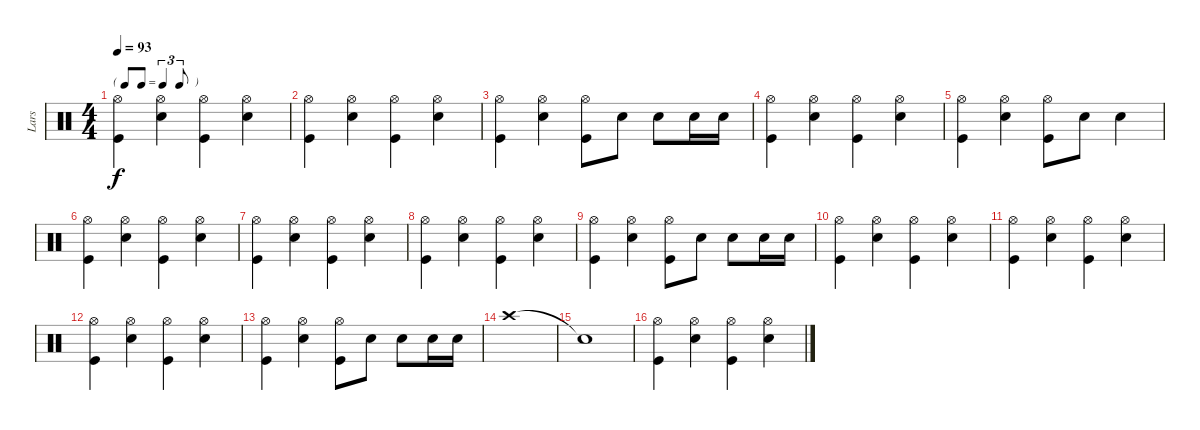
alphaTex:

\track ("Lars" "Lars") {instrument percussion}
\staff {score}
\articulation defaults
\ts (4 4)
\tf triplet8th
\tempo 93
\clef neutral
\ks c
("Hi-Hat (open)" "Kick (hit)").4{dy f} ("Hi-Hat (open)" "Snare (hit) 2").4 ("Hi-Hat (open)" "Kick (hit)").4 ("Hi-Hat (open)" "Snare (hit) 2").4 |
("Hi-Hat (open)" "Kick (hit)").4 ("Hi-Hat (open)" "Snare (hit) 2").4 ("Hi-Hat (open)" "Kick (hit)").4 ("Hi-Hat (open)" "Snare (hit) 2").4 |
("Hi-Hat (open)" "Kick (hit)").4 ("Hi-Hat (open)" "Snare (hit) 2").4 ("Hi-Hat (open)" "Kick (hit)").8 "Snare (hit) 2".8 "Snare (hit) 2".8 "Snare (hit) 2".16 "Snare (hit) 2".16 |
("Hi-Hat (open)" "Kick (hit)").4 ("Hi-Hat (open)" "Snare (hit) 2").4 ("Hi-Hat (open)" "Kick (hit)").4 ("Hi-Hat (open)" "Snare (hit) 2").4 |
("Hi-Hat (open)" "Kick (hit)").4 ("Hi-Hat (open)" "Snare (hit) 2").4 ("Hi-Hat (open)" "Kick (hit)").8 "Snare (hit) 2".8 "Snare (hit) 2".4 |
("Hi-Hat (open)" "Kick (hit)").4 ("Hi-Hat (open)" "Snare (hit) 2").4 ("Hi-Hat (open)" "Kick (hit)").4 ("Hi-Hat (open)" "Snare (hit) 2").4 |
("Hi-Hat (open)" "Kick (hit)").4 ("Hi-Hat (open)" "Snare (hit) 2").4 ("Hi-Hat (open)" "Kick (hit)").4 ("Hi-Hat (open)" "Snare (hit) 2").4 |
("Hi-Hat (open)" "Kick (hit)").4 ("Hi-Hat (open)" "Snare (hit) 2").4 ("Hi-Hat (open)" "Kick (hit)").4 ("Hi-Hat (open)" "Snare (hit) 2").4 |
("Hi-Hat (open)" "Kick (hit)").4 ("Hi-Hat (open)" "Snare (hit) 2").4 ("Hi-Hat (open)" "Kick (hit)").8 "Snare (hit) 2".8 "Snare (hit) 2".8 "Snare (hit) 2".16 "Snare (hit) 2".16 |
("Hi-Hat (open)" "Kick (hit)").4 ("Hi-Hat (open)" "Snare (hit) 2").4 ("Hi-Hat (open)" "Kick (hit)").4 ("Hi-Hat (open)" "Snare (hit) 2").4 |
("Hi-Hat (open)" "Kick (hit)").4 ("Hi-Hat (open)" "Snare (hit) 2").4 ("Hi-Hat (open)" "Kick (hit)").4 ("Hi-Hat (open)" "Snare (hit) 2").4 |
("Hi-Hat (open)" "Kick (hit)").4 ("Hi-Hat (open)" "Snare (hit) 2").4 ("Hi-Hat (open)" "Kick (hit)").4 ("Hi-Hat (open)" "Snare (hit) 2").4 |
("Hi-Hat (open)" "Kick (hit)").4 ("Hi-Hat (open)" "Snare (hit) 2").4 ("Hi-Hat (open)" "Kick (hit)").8 "Snare (hit) 2".8 "Snare (hit) 2".8 "Snare (hit) 2".16 "Snare (hit) 2".16 |
"Crash high (hit)".1 |
"Snare (hit)"{t}.1 |
("Hi-Hat (open)" "Kick (hit)").4 ("Hi-Hat (open)" "Snare (hit) 2").4 ("Hi-Hat (open)" "Kick (hit)").4 ("Hi-Hat (open)" "Snare (hit) 2").4
